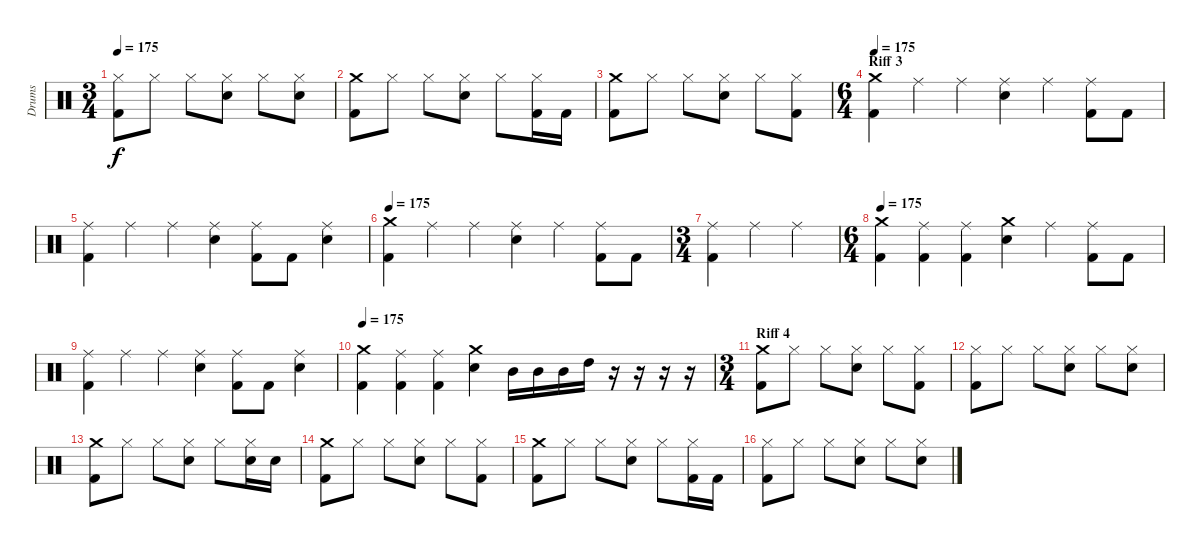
\track ("Drums" "Drums") {instrument percussion}
\staff {score}
\articulation defaults
\ts (3 4)
\tempo 175
\clef neutral
\ks c
("Hi-Hat (closed)" "Kick (hit) 2").8{dy f} "Hi-Hat (closed)".8 "Hi-Hat (closed)".8 ("Hi-Hat (closed)" "Electric Snare (hit)").8 "Hi-Hat (closed)".8 ("Hi-Hat (closed)" "Electric Snare (hit)").8 |
("Crash medium (hit)" "Kick (hit) 2").8 "Hi-Hat (closed)".8 "Hi-Hat (closed)".8 ("Hi-Hat (closed)" "Electric Snare (hit)").8 "Hi-Hat (closed)".8 ("Hi-Hat (closed)" "Kick (hit) 2").16 "Kick (hit) 2".16 |
("Crash medium (hit)" "Kick (hit) 2").8 "Hi-Hat (closed)".8 "Hi-Hat (closed)".8 ("Hi-Hat (closed)" "Electric Snare (hit)").8 "Hi-Hat (closed)".8 ("Hi-Hat (closed)" "Kick (hit) 2").8 |
\ts (6 4)
\section ("" "Riff 3")
\tempo 175
("Crash medium (hit)" "Kick (hit) 2").4 "Ride (middle)".4 "Ride (middle)".4 ("Ride (middle)" "Electric Snare (hit)").4 "Ride (middle)".4 ("Ride (middle)" "Kick (hit) 2").8 "Kick (hit) 2".8 |
("Ride (middle)" "Kick (hit) 2").4 "Ride (middle)".4 "Ride (middle)".4 ("Ride (middle)" "Electric Snare (hit)").4 ("Ride (middle)" "Kick (hit) 2").8 "Kick (hit) 2".8 ("Ride (middle)" "Electric Snare (hit)").4 |
\tempo 175
("Crash medium (hit)" "Kick (hit) 2").4 "Ride (middle)".4 "Ride (middle)".4 ("Ride (middle)" "Electric Snare (hit)").4 "Ride (middle)".4 ("Ride (middle)" "Kick (hit) 2").8 "Kick (hit) 2".8 |
\ts (3 4)
("Ride (middle)" "Kick (hit) 2").4 "Ride (middle)".4 "Ride (middle)".4 |
\ts (6 4)
\tempo 175
("Crash medium (hit)" "Kick (hit) 2").4 ("Ride (middle)" "Kick (hit) 2").4 ("Ride (middle)" "Kick (hit) 2").4 ("Crash medium (hit)" "Electric Snare (hit)").4 "Ride (middle)".4 ("Ride (middle)" "Kick (hit) 2").8 "Kick (hit) 2".8 |
("Ride (middle)" "Kick (hit) 2").4 "Ride (middle)".4 "Ride (middle)".4 ("Ride (middle)" "Electric Snare (hit)").4 ("Ride (middle)" "Kick (hit) 2").8 "Kick (hit) 2".8 ("Ride (middle)" "Electric Snare (hit)").4 |
\tempo 175
("Crash medium (hit)" "Kick (hit) 2").4 ("Ride (middle)" "Kick (hit) 2").4 ("Ride (middle)" "Kick (hit) 2").4 ("Crash medium (hit)" "Electric Snare (hit)").4 "Mid Tom (hit)".16 "Mid Tom (hit)".16 "Mid Tom (hit)".16 "High Tom (hit)".16 r.16 r.16 r.16 r.16 |
\ts (3 4)
\section ("" "Riff 4")
("Crash medium (hit)" "Kick (hit) 2").8 "Hi-Hat (closed)".8 "Hi-Hat (closed)".8 ("Hi-Hat (closed)" "Electric Snare (hit)").8 "Hi-Hat (closed)".8 ("Hi-Hat (closed)" "Kick (hit) 2").8 |
("Hi-Hat (closed)" "Kick (hit) 2").8 "Hi-Hat (closed)".8 "Hi-Hat (closed)".8 ("Hi-Hat (closed)" "Electric Snare (hit)").8 "Hi-Hat (closed)".8 ("Hi-Hat (closed)" "Electric Snare (hit)").8 |
("Crash medium (hit)" "Kick (hit) 2").8 "Hi-Hat (closed)".8 "Hi-Hat (closed)".8 ("Hi-Hat (closed)" "Electric Snare (hit)").8 "Hi-Hat (closed)".8 ("Hi-Hat (closed)" "Electric Snare (hit)").16 "Electric Snare (hit)".16 |
("Crash medium (hit)" "Kick (hit) 2").8 "Hi-Hat (closed)".8 "Hi-Hat (closed)".8 ("Hi-Hat (closed)" "Electric Snare (hit)").8 "Hi-Hat (closed)".8 ("Hi-Hat (closed)" "Kick (hit) 2").8 |
("Crash medium (hit)" "Kick (hit) 2").8 "Hi-Hat (closed)".8 "Hi-Hat (closed)".8 ("Hi-Hat (closed)" "Electric Snare (hit)").8 "Hi-Hat (closed)".8 ("Hi-Hat (closed)" "Kick (hit) 2").16 "Kick (hit) 2".16 |
("Hi-Hat (closed)" "Kick (hit) 2").8 "Hi-Hat (closed)".8 "Hi-Hat (closed)".8 ("Hi-Hat (closed)" "Electric Snare (hit)").8 "Hi-Hat (closed)".8 ("Hi-Hat (closed)" "Electric Snare (hit)").8
